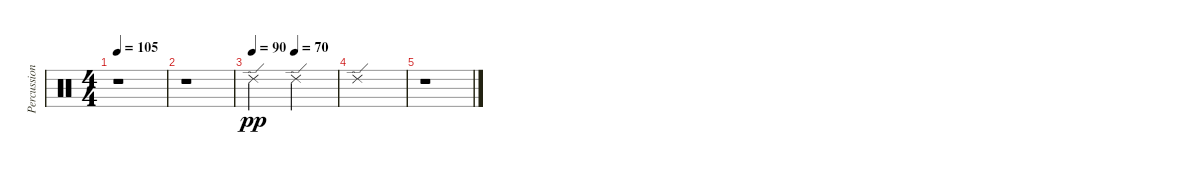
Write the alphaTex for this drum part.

\track ("Percussion" "Percussion") {instrument percussion}
\staff {score}
\articulation defaults
\ts (4 4)
\tempo 105
\clef neutral
\ks c
r.1{dy ppp} |
r.1 |
\tempo 90
\tempo (70 0.5)
"Ride (edge) 2".2{dy pp} "Ride (edge) 2".2 |
"Ride (edge) 2".1 |
r.1
